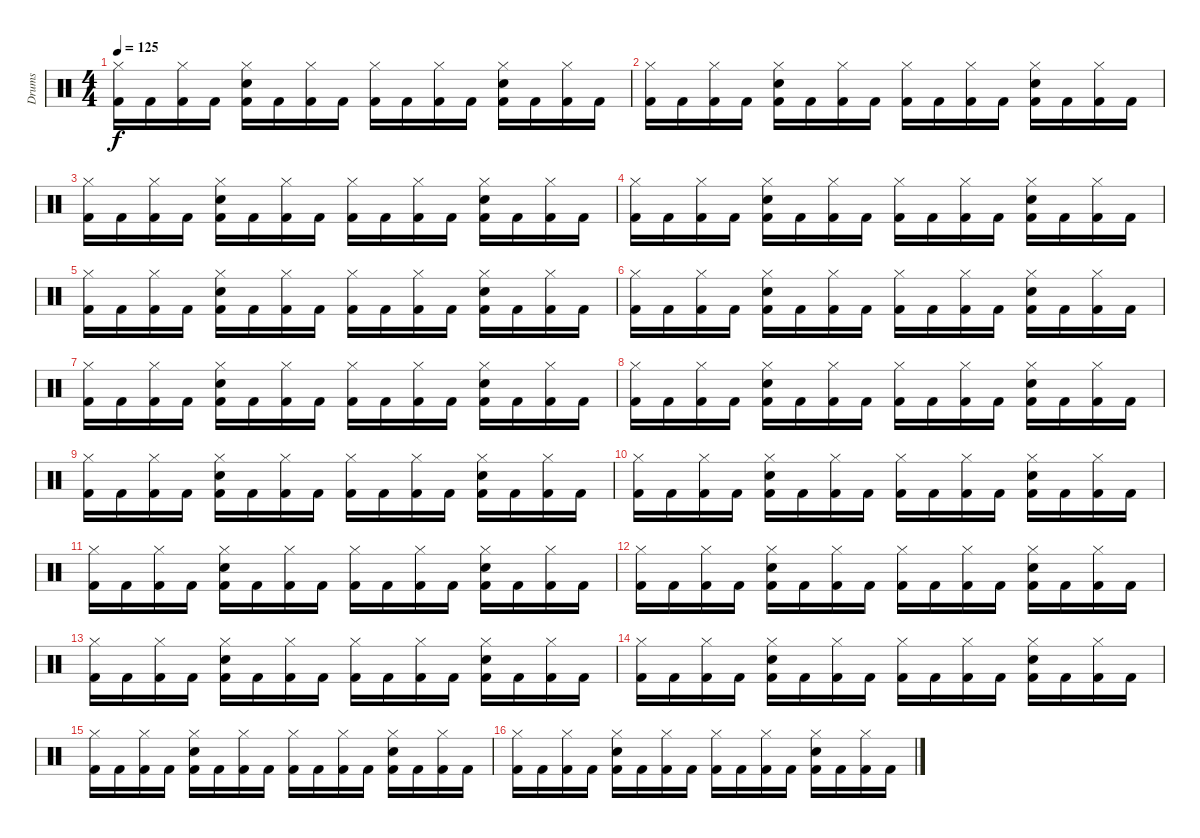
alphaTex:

\track ("Drums" "Drums") {instrument percussion}
\staff {score}
\articulation defaults
\ts (4 4)
\tempo 125
\clef neutral
\ks c
("Hi-Hat (closed)" "Kick (hit) 2").16{dy f} "Kick (hit) 2".16 ("Hi-Hat (closed)" "Kick (hit) 2").16 "Kick (hit) 2".16 ("Hi-Hat (closed)" "Electric Snare (hit)" "Kick (hit) 2").16 "Kick (hit) 2".16 ("Hi-Hat (closed)" "Kick (hit) 2").16 "Kick (hit) 2".16 ("Hi-Hat (closed)" "Kick (hit) 2").16 "Kick (hit) 2".16 ("Hi-Hat (closed)" "Kick (hit) 2").16 "Kick (hit) 2".16 ("Hi-Hat (closed)" "Electric Snare (hit)" "Kick (hit) 2").16 "Kick (hit) 2".16 ("Hi-Hat (closed)" "Kick (hit) 2").16 "Kick (hit) 2".16 |
("Hi-Hat (closed)" "Kick (hit) 2").16 "Kick (hit) 2".16 ("Hi-Hat (closed)" "Kick (hit) 2").16 "Kick (hit) 2".16 ("Hi-Hat (closed)" "Electric Snare (hit)" "Kick (hit) 2").16 "Kick (hit) 2".16 ("Hi-Hat (closed)" "Kick (hit) 2").16 "Kick (hit) 2".16 ("Hi-Hat (closed)" "Kick (hit) 2").16 "Kick (hit) 2".16 ("Hi-Hat (closed)" "Kick (hit) 2").16 "Kick (hit) 2".16 ("Hi-Hat (closed)" "Electric Snare (hit)" "Kick (hit) 2").16 "Kick (hit) 2".16 ("Hi-Hat (closed)" "Kick (hit) 2").16 "Kick (hit) 2".16 |
("Hi-Hat (closed)" "Kick (hit) 2").16 "Kick (hit) 2".16 ("Hi-Hat (closed)" "Kick (hit) 2").16 "Kick (hit) 2".16 ("Hi-Hat (closed)" "Electric Snare (hit)" "Kick (hit) 2").16 "Kick (hit) 2".16 ("Hi-Hat (closed)" "Kick (hit) 2").16 "Kick (hit) 2".16 ("Hi-Hat (closed)" "Kick (hit) 2").16 "Kick (hit) 2".16 ("Hi-Hat (closed)" "Kick (hit) 2").16 "Kick (hit) 2".16 ("Hi-Hat (closed)" "Electric Snare (hit)" "Kick (hit) 2").16 "Kick (hit) 2".16 ("Hi-Hat (closed)" "Kick (hit) 2").16 "Kick (hit) 2".16 |
("Hi-Hat (closed)" "Kick (hit) 2").16 "Kick (hit) 2".16 ("Hi-Hat (closed)" "Kick (hit) 2").16 "Kick (hit) 2".16 ("Hi-Hat (closed)" "Electric Snare (hit)" "Kick (hit) 2").16 "Kick (hit) 2".16 ("Hi-Hat (closed)" "Kick (hit) 2").16 "Kick (hit) 2".16 ("Hi-Hat (closed)" "Kick (hit) 2").16 "Kick (hit) 2".16 ("Hi-Hat (closed)" "Kick (hit) 2").16 "Kick (hit) 2".16 ("Hi-Hat (closed)" "Electric Snare (hit)" "Kick (hit) 2").16 "Kick (hit) 2".16 ("Hi-Hat (closed)" "Kick (hit) 2").16 "Kick (hit) 2".16 |
("Hi-Hat (closed)" "Kick (hit) 2").16 "Kick (hit) 2".16 ("Hi-Hat (closed)" "Kick (hit) 2").16 "Kick (hit) 2".16 ("Hi-Hat (closed)" "Electric Snare (hit)" "Kick (hit) 2").16 "Kick (hit) 2".16 ("Hi-Hat (closed)" "Kick (hit) 2").16 "Kick (hit) 2".16 ("Hi-Hat (closed)" "Kick (hit) 2").16 "Kick (hit) 2".16 ("Hi-Hat (closed)" "Kick (hit) 2").16 "Kick (hit) 2".16 ("Hi-Hat (closed)" "Electric Snare (hit)" "Kick (hit) 2").16 "Kick (hit) 2".16 ("Hi-Hat (closed)" "Kick (hit) 2").16 "Kick (hit) 2".16 |
("Hi-Hat (closed)" "Kick (hit) 2").16 "Kick (hit) 2".16 ("Hi-Hat (closed)" "Kick (hit) 2").16 "Kick (hit) 2".16 ("Hi-Hat (closed)" "Electric Snare (hit)" "Kick (hit) 2").16 "Kick (hit) 2".16 ("Hi-Hat (closed)" "Kick (hit) 2").16 "Kick (hit) 2".16 ("Hi-Hat (closed)" "Kick (hit) 2").16 "Kick (hit) 2".16 ("Hi-Hat (closed)" "Kick (hit) 2").16 "Kick (hit) 2".16 ("Hi-Hat (closed)" "Electric Snare (hit)" "Kick (hit) 2").16 "Kick (hit) 2".16 ("Hi-Hat (closed)" "Kick (hit) 2").16 "Kick (hit) 2".16 |
("Hi-Hat (closed)" "Kick (hit) 2").16 "Kick (hit) 2".16 ("Hi-Hat (closed)" "Kick (hit) 2").16 "Kick (hit) 2".16 ("Hi-Hat (closed)" "Electric Snare (hit)" "Kick (hit) 2").16 "Kick (hit) 2".16 ("Hi-Hat (closed)" "Kick (hit) 2").16 "Kick (hit) 2".16 ("Hi-Hat (closed)" "Kick (hit) 2").16 "Kick (hit) 2".16 ("Hi-Hat (closed)" "Kick (hit) 2").16 "Kick (hit) 2".16 ("Hi-Hat (closed)" "Electric Snare (hit)" "Kick (hit) 2").16 "Kick (hit) 2".16 ("Hi-Hat (closed)" "Kick (hit) 2").16 "Kick (hit) 2".16 |
("Hi-Hat (closed)" "Kick (hit) 2").16 "Kick (hit) 2".16 ("Hi-Hat (closed)" "Kick (hit) 2").16 "Kick (hit) 2".16 ("Hi-Hat (closed)" "Electric Snare (hit)" "Kick (hit) 2").16 "Kick (hit) 2".16 ("Hi-Hat (closed)" "Kick (hit) 2").16 "Kick (hit) 2".16 ("Hi-Hat (closed)" "Kick (hit) 2").16 "Kick (hit) 2".16 ("Hi-Hat (closed)" "Kick (hit) 2").16 "Kick (hit) 2".16 ("Hi-Hat (closed)" "Electric Snare (hit)" "Kick (hit) 2").16 "Kick (hit) 2".16 ("Hi-Hat (closed)" "Kick (hit) 2").16 "Kick (hit) 2".16 |
("Hi-Hat (closed)" "Kick (hit) 2").16 "Kick (hit) 2".16 ("Hi-Hat (closed)" "Kick (hit) 2").16 "Kick (hit) 2".16 ("Hi-Hat (closed)" "Electric Snare (hit)" "Kick (hit) 2").16 "Kick (hit) 2".16 ("Hi-Hat (closed)" "Kick (hit) 2").16 "Kick (hit) 2".16 ("Hi-Hat (closed)" "Kick (hit) 2").16 "Kick (hit) 2".16 ("Hi-Hat (closed)" "Kick (hit) 2").16 "Kick (hit) 2".16 ("Hi-Hat (closed)" "Electric Snare (hit)" "Kick (hit) 2").16 "Kick (hit) 2".16 ("Hi-Hat (closed)" "Kick (hit) 2").16 "Kick (hit) 2".16 |
("Hi-Hat (closed)" "Kick (hit) 2").16 "Kick (hit) 2".16 ("Hi-Hat (closed)" "Kick (hit) 2").16 "Kick (hit) 2".16 ("Hi-Hat (closed)" "Electric Snare (hit)" "Kick (hit) 2").16 "Kick (hit) 2".16 ("Hi-Hat (closed)" "Kick (hit) 2").16 "Kick (hit) 2".16 ("Hi-Hat (closed)" "Kick (hit) 2").16 "Kick (hit) 2".16 ("Hi-Hat (closed)" "Kick (hit) 2").16 "Kick (hit) 2".16 ("Hi-Hat (closed)" "Electric Snare (hit)" "Kick (hit) 2").16 "Kick (hit) 2".16 ("Hi-Hat (closed)" "Kick (hit) 2").16 "Kick (hit) 2".16 |
("Hi-Hat (closed)" "Kick (hit) 2").16 "Kick (hit) 2".16 ("Hi-Hat (closed)" "Kick (hit) 2").16 "Kick (hit) 2".16 ("Hi-Hat (closed)" "Electric Snare (hit)" "Kick (hit) 2").16 "Kick (hit) 2".16 ("Hi-Hat (closed)" "Kick (hit) 2").16 "Kick (hit) 2".16 ("Hi-Hat (closed)" "Kick (hit) 2").16 "Kick (hit) 2".16 ("Hi-Hat (closed)" "Kick (hit) 2").16 "Kick (hit) 2".16 ("Hi-Hat (closed)" "Electric Snare (hit)" "Kick (hit) 2").16 "Kick (hit) 2".16 ("Hi-Hat (closed)" "Kick (hit) 2").16 "Kick (hit) 2".16 |
("Hi-Hat (closed)" "Kick (hit) 2").16 "Kick (hit) 2".16 ("Hi-Hat (closed)" "Kick (hit) 2").16 "Kick (hit) 2".16 ("Hi-Hat (closed)" "Electric Snare (hit)" "Kick (hit) 2").16 "Kick (hit) 2".16 ("Hi-Hat (closed)" "Kick (hit) 2").16 "Kick (hit) 2".16 ("Hi-Hat (closed)" "Kick (hit) 2").16 "Kick (hit) 2".16 ("Hi-Hat (closed)" "Kick (hit) 2").16 "Kick (hit) 2".16 ("Hi-Hat (closed)" "Electric Snare (hit)" "Kick (hit) 2").16 "Kick (hit) 2".16 ("Hi-Hat (closed)" "Kick (hit) 2").16 "Kick (hit) 2".16 |
("Hi-Hat (closed)" "Kick (hit) 2").16 "Kick (hit) 2".16 ("Hi-Hat (closed)" "Kick (hit) 2").16 "Kick (hit) 2".16 ("Hi-Hat (closed)" "Electric Snare (hit)" "Kick (hit) 2").16 "Kick (hit) 2".16 ("Hi-Hat (closed)" "Kick (hit) 2").16 "Kick (hit) 2".16 ("Hi-Hat (closed)" "Kick (hit) 2").16 "Kick (hit) 2".16 ("Hi-Hat (closed)" "Kick (hit) 2").16 "Kick (hit) 2".16 ("Hi-Hat (closed)" "Electric Snare (hit)" "Kick (hit) 2").16 "Kick (hit) 2".16 ("Hi-Hat (closed)" "Kick (hit) 2").16 "Kick (hit) 2".16 |
("Hi-Hat (closed)" "Kick (hit) 2").16 "Kick (hit) 2".16 ("Hi-Hat (closed)" "Kick (hit) 2").16 "Kick (hit) 2".16 ("Hi-Hat (closed)" "Electric Snare (hit)" "Kick (hit) 2").16 "Kick (hit) 2".16 ("Hi-Hat (closed)" "Kick (hit) 2").16 "Kick (hit) 2".16 ("Hi-Hat (closed)" "Kick (hit) 2").16 "Kick (hit) 2".16 ("Hi-Hat (closed)" "Kick (hit) 2").16 "Kick (hit) 2".16 ("Hi-Hat (closed)" "Electric Snare (hit)" "Kick (hit) 2").16 "Kick (hit) 2".16 ("Hi-Hat (closed)" "Kick (hit) 2").16 "Kick (hit) 2".16 |
("Hi-Hat (closed)" "Kick (hit) 2").16 "Kick (hit) 2".16 ("Hi-Hat (closed)" "Kick (hit) 2").16 "Kick (hit) 2".16 ("Hi-Hat (closed)" "Electric Snare (hit)" "Kick (hit) 2").16 "Kick (hit) 2".16 ("Hi-Hat (closed)" "Kick (hit) 2").16 "Kick (hit) 2".16 ("Hi-Hat (closed)" "Kick (hit) 2").16 "Kick (hit) 2".16 ("Hi-Hat (closed)" "Kick (hit) 2").16 "Kick (hit) 2".16 ("Hi-Hat (closed)" "Electric Snare (hit)" "Kick (hit) 2").16 "Kick (hit) 2".16 ("Hi-Hat (closed)" "Kick (hit) 2").16 "Kick (hit) 2".16 |
("Hi-Hat (closed)" "Kick (hit) 2").16 "Kick (hit) 2".16 ("Hi-Hat (closed)" "Kick (hit) 2").16 "Kick (hit) 2".16 ("Hi-Hat (closed)" "Electric Snare (hit)" "Kick (hit) 2").16 "Kick (hit) 2".16 ("Hi-Hat (closed)" "Kick (hit) 2").16 "Kick (hit) 2".16 ("Hi-Hat (closed)" "Kick (hit) 2").16 "Kick (hit) 2".16 ("Hi-Hat (closed)" "Kick (hit) 2").16 "Kick (hit) 2".16 ("Hi-Hat (closed)" "Electric Snare (hit)" "Kick (hit) 2").16 "Kick (hit) 2".16 ("Hi-Hat (closed)" "Kick (hit) 2").16 "Kick (hit) 2".16
